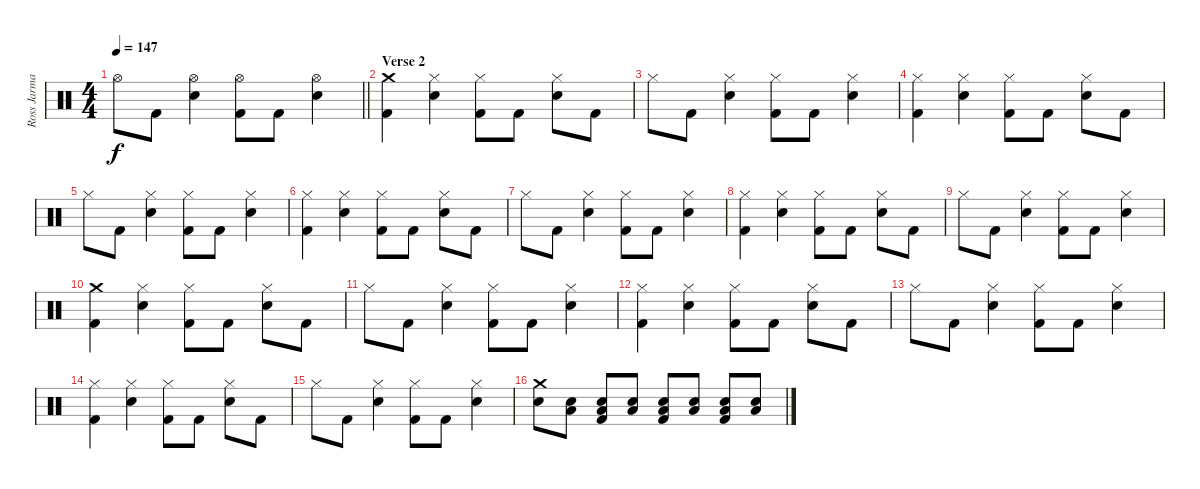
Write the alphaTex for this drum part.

\track ("Ross Jarman (Drums)" "Ross Jarma") {instrument percussion}
\staff {score}
\articulation defaults
\ts (4 4)
\tempo 147
\clef neutral
\barLineRight lightlight
\ks c "Hi-Hat (open)".8{dy f} "Kick (hit) 2".8
("Hi-Hat (open)" "Electric Snare (hit)").4 ("Hi-Hat (open)" "Kick (hit) 2").8 "Kick (hit) 2".8 ("Hi-Hat (open)" "Electric Snare (hit)").4 |
\section ("" "Verse 2")
("Crash medium (hit)" "Kick (hit) 2").4 ("Hi-Hat (closed)" "Electric Snare (hit)").4 ("Hi-Hat (closed)" "Kick (hit) 2").8 "Kick (hit) 2".8 ("Hi-Hat (closed)" "Electric Snare (hit)").8 "Kick (hit) 2".8 |
"Hi-Hat (closed)".8 "Kick (hit) 2".8 ("Hi-Hat (closed)" "Electric Snare (hit)").4 ("Hi-Hat (closed)" "Kick (hit) 2").8 "Kick (hit) 2".8 ("Hi-Hat (closed)" "Electric Snare (hit)").4 |
("Hi-Hat (closed)" "Kick (hit) 2").4 ("Hi-Hat (closed)" "Electric Snare (hit)").4 ("Hi-Hat (closed)" "Kick (hit) 2").8 "Kick (hit) 2".8 ("Hi-Hat (closed)" "Electric Snare (hit)").8 "Kick (hit) 2".8 |
"Hi-Hat (closed)".8 "Kick (hit) 2".8 ("Hi-Hat (closed)" "Electric Snare (hit)").4 ("Hi-Hat (closed)" "Kick (hit) 2").8 "Kick (hit) 2".8 ("Hi-Hat (closed)" "Electric Snare (hit)").4 |
("Hi-Hat (closed)" "Kick (hit) 2").4 ("Hi-Hat (closed)" "Electric Snare (hit)").4 ("Hi-Hat (closed)" "Kick (hit) 2").8 "Kick (hit) 2".8 ("Hi-Hat (closed)" "Electric Snare (hit)").8 "Kick (hit) 2".8 |
"Hi-Hat (closed)".8 "Kick (hit) 2".8 ("Hi-Hat (closed)" "Electric Snare (hit)").4 ("Hi-Hat (closed)" "Kick (hit) 2").8 "Kick (hit) 2".8 ("Hi-Hat (closed)" "Electric Snare (hit)").4 |
("Hi-Hat (closed)" "Kick (hit) 2").4 ("Hi-Hat (closed)" "Electric Snare (hit)").4 ("Hi-Hat (closed)" "Kick (hit) 2").8 "Kick (hit) 2".8 ("Hi-Hat (closed)" "Electric Snare (hit)").8 "Kick (hit) 2".8 |
"Hi-Hat (closed)".8 "Kick (hit) 2".8 ("Hi-Hat (closed)" "Electric Snare (hit)").4 ("Hi-Hat (closed)" "Kick (hit) 2").8 "Kick (hit) 2".8 ("Hi-Hat (closed)" "Electric Snare (hit)").4 |
("Crash medium (hit)" "Kick (hit) 2").4 ("Hi-Hat (closed)" "Electric Snare (hit)").4 ("Hi-Hat (closed)" "Kick (hit) 2").8 "Kick (hit) 2".8 ("Hi-Hat (closed)" "Electric Snare (hit)").8 "Kick (hit) 2".8 |
"Hi-Hat (closed)".8 "Kick (hit) 2".8 ("Hi-Hat (closed)" "Electric Snare (hit)").4 ("Hi-Hat (closed)" "Kick (hit) 2").8 "Kick (hit) 2".8 ("Hi-Hat (closed)" "Electric Snare (hit)").4 |
("Hi-Hat (closed)" "Kick (hit) 2").4 ("Hi-Hat (closed)" "Electric Snare (hit)").4 ("Hi-Hat (closed)" "Kick (hit) 2").8 "Kick (hit) 2".8 ("Hi-Hat (closed)" "Electric Snare (hit)").8 "Kick (hit) 2".8 |
"Hi-Hat (closed)".8 "Kick (hit) 2".8 ("Hi-Hat (closed)" "Electric Snare (hit)").4 ("Hi-Hat (closed)" "Kick (hit) 2").8 "Kick (hit) 2".8 ("Hi-Hat (closed)" "Electric Snare (hit)").4 |
("Hi-Hat (closed)" "Kick (hit) 2").4 ("Hi-Hat (closed)" "Electric Snare (hit)").4 ("Hi-Hat (closed)" "Kick (hit) 2").8 "Kick (hit) 2".8 ("Hi-Hat (closed)" "Electric Snare (hit)").8 "Kick (hit) 2".8 |
"Hi-Hat (closed)".8 "Kick (hit) 2".8 ("Hi-Hat (closed)" "Electric Snare (hit)").4 ("Hi-Hat (closed)" "Kick (hit) 2").8 "Kick (hit) 2".8 ("Hi-Hat (closed)" "Electric Snare (hit)").4 |
("Crash medium (hit)" "Electric Snare (hit)").8 ("Electric Snare (hit)" "Low Floor Tom (hit)").8 ("Electric Snare (hit)" "Low Floor Tom (hit)" "Kick (hit) 2").8 ("Electric Snare (hit)" "Low Floor Tom (hit)").8 ("Electric Snare (hit)" "Low Floor Tom (hit)" "Kick (hit) 2").8 ("Electric Snare (hit)" "Low Floor Tom (hit)").8 ("Electric Snare (hit)" "Low Floor Tom (hit)" "Kick (hit) 2").8 ("Electric Snare (hit)" "Low Floor Tom (hit)").8
